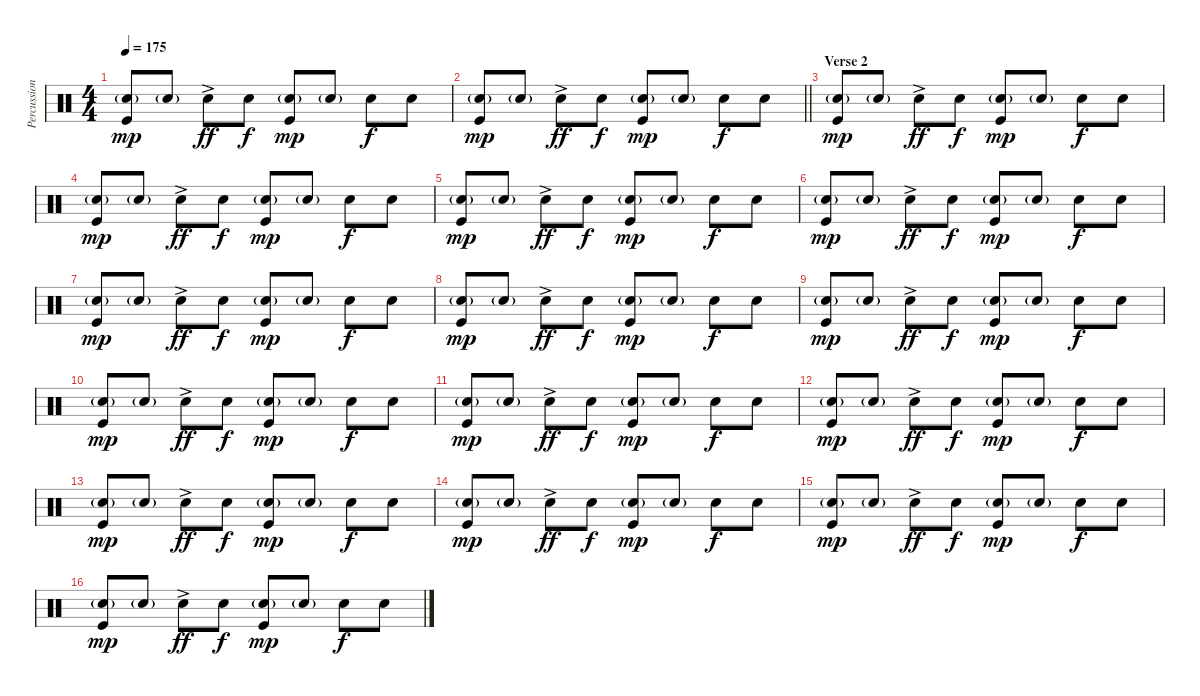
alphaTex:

\track ("Percussion" "Percussion") {instrument percussion}
\staff {score}
\articulation defaults
\ts (4 4)
\tempo 175
\clef neutral
\ks c
("Snare (hit) 2"{g} "Kick (hit)").8{dy mp} "Snare (hit) 2"{g}.8 "Snare (hit) 2"{ac}.8{dy ff} "Snare (hit) 2".8{dy f} ("Snare (hit) 2"{g} "Kick (hit)").8{dy mp} "Snare (hit) 2"{g}.8 "Snare (hit) 2".8{dy f} "Snare (hit) 2".8 |
\barLineRight lightlight
("Snare (hit) 2"{g} "Kick (hit)").8{dy mp} "Snare (hit) 2"{g}.8 "Snare (hit) 2"{ac}.8{dy ff} "Snare (hit) 2".8{dy f} ("Snare (hit) 2"{g} "Kick (hit)").8{dy mp} "Snare (hit) 2"{g}.8 "Snare (hit) 2".8{dy f} "Snare (hit) 2".8 |
\section ("" "Verse 2")
("Snare (hit) 2"{g} "Kick (hit)").8{dy mp} "Snare (hit) 2"{g}.8 "Snare (hit) 2"{ac}.8{dy ff} "Snare (hit) 2".8{dy f} ("Snare (hit) 2"{g} "Kick (hit)").8{dy mp} "Snare (hit) 2"{g}.8 "Snare (hit) 2".8{dy f} "Snare (hit) 2".8 |
("Snare (hit) 2"{g} "Kick (hit)").8{dy mp} "Snare (hit) 2"{g}.8 "Snare (hit) 2"{ac}.8{dy ff} "Snare (hit) 2".8{dy f} ("Snare (hit) 2"{g} "Kick (hit)").8{dy mp} "Snare (hit) 2"{g}.8 "Snare (hit) 2".8{dy f} "Snare (hit) 2".8 |
("Snare (hit) 2"{g} "Kick (hit)").8{dy mp} "Snare (hit) 2"{g}.8 "Snare (hit) 2"{ac}.8{dy ff} "Snare (hit) 2".8{dy f} ("Snare (hit) 2"{g} "Kick (hit)").8{dy mp} "Snare (hit) 2"{g}.8 "Snare (hit) 2".8{dy f} "Snare (hit) 2".8 |
("Snare (hit) 2"{g} "Kick (hit)").8{dy mp} "Snare (hit) 2"{g}.8 "Snare (hit) 2"{ac}.8{dy ff} "Snare (hit) 2".8{dy f} ("Snare (hit) 2"{g} "Kick (hit)").8{dy mp} "Snare (hit) 2"{g}.8 "Snare (hit) 2".8{dy f} "Snare (hit) 2".8 |
("Snare (hit) 2"{g} "Kick (hit)").8{dy mp} "Snare (hit) 2"{g}.8 "Snare (hit) 2"{ac}.8{dy ff} "Snare (hit) 2".8{dy f} ("Snare (hit) 2"{g} "Kick (hit)").8{dy mp} "Snare (hit) 2"{g}.8 "Snare (hit) 2".8{dy f} "Snare (hit) 2".8 |
("Snare (hit) 2"{g} "Kick (hit)").8{dy mp} "Snare (hit) 2"{g}.8 "Snare (hit) 2"{ac}.8{dy ff} "Snare (hit) 2".8{dy f} ("Snare (hit) 2"{g} "Kick (hit)").8{dy mp} "Snare (hit) 2"{g}.8 "Snare (hit) 2".8{dy f} "Snare (hit) 2".8 |
("Snare (hit) 2"{g} "Kick (hit)").8{dy mp} "Snare (hit) 2"{g}.8 "Snare (hit) 2"{ac}.8{dy ff} "Snare (hit) 2".8{dy f} ("Snare (hit) 2"{g} "Kick (hit)").8{dy mp} "Snare (hit) 2"{g}.8 "Snare (hit) 2".8{dy f} "Snare (hit) 2".8 |
("Snare (hit) 2"{g} "Kick (hit)").8{dy mp} "Snare (hit) 2"{g}.8 "Snare (hit) 2"{ac}.8{dy ff} "Snare (hit) 2".8{dy f} ("Snare (hit) 2"{g} "Kick (hit)").8{dy mp} "Snare (hit) 2"{g}.8 "Snare (hit) 2".8{dy f} "Snare (hit) 2".8 |
("Snare (hit) 2"{g} "Kick (hit)").8{dy mp} "Snare (hit) 2"{g}.8 "Snare (hit) 2"{ac}.8{dy ff} "Snare (hit) 2".8{dy f} ("Snare (hit) 2"{g} "Kick (hit)").8{dy mp} "Snare (hit) 2"{g}.8 "Snare (hit) 2".8{dy f} "Snare (hit) 2".8 |
("Snare (hit) 2"{g} "Kick (hit)").8{dy mp} "Snare (hit) 2"{g}.8 "Snare (hit) 2"{ac}.8{dy ff} "Snare (hit) 2".8{dy f} ("Snare (hit) 2"{g} "Kick (hit)").8{dy mp} "Snare (hit) 2"{g}.8 "Snare (hit) 2".8{dy f} "Snare (hit) 2".8 |
("Snare (hit) 2"{g} "Kick (hit)").8{dy mp} "Snare (hit) 2"{g}.8 "Snare (hit) 2"{ac}.8{dy ff} "Snare (hit) 2".8{dy f} ("Snare (hit) 2"{g} "Kick (hit)").8{dy mp} "Snare (hit) 2"{g}.8 "Snare (hit) 2".8{dy f} "Snare (hit) 2".8 |
("Snare (hit) 2"{g} "Kick (hit)").8{dy mp} "Snare (hit) 2"{g}.8 "Snare (hit) 2"{ac}.8{dy ff} "Snare (hit) 2".8{dy f} ("Snare (hit) 2"{g} "Kick (hit)").8{dy mp} "Snare (hit) 2"{g}.8 "Snare (hit) 2".8{dy f} "Snare (hit) 2".8 |
("Snare (hit) 2"{g} "Kick (hit)").8{dy mp} "Snare (hit) 2"{g}.8 "Snare (hit) 2"{ac}.8{dy ff} "Snare (hit) 2".8{dy f} ("Snare (hit) 2"{g} "Kick (hit)").8{dy mp} "Snare (hit) 2"{g}.8 "Snare (hit) 2".8{dy f} "Snare (hit) 2".8 |
("Snare (hit) 2"{g} "Kick (hit)").8{dy mp} "Snare (hit) 2"{g}.8 "Snare (hit) 2"{ac}.8{dy ff} "Snare (hit) 2".8{dy f} ("Snare (hit) 2"{g} "Kick (hit)").8{dy mp} "Snare (hit) 2"{g}.8 "Snare (hit) 2".8{dy f} "Snare (hit) 2".8
